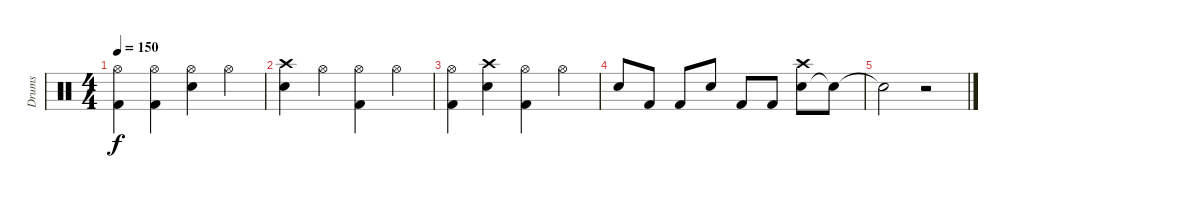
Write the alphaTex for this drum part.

\track ("Drums" "Drums") {instrument percussion}
\staff {score}
\articulation defaults
\ts (4 4)
\tempo 150
\clef neutral
\ks c
("Hi-Hat (open)" "Kick (hit) 2").4{dy f} ("Hi-Hat (open)" "Kick (hit) 2").4 ("Hi-Hat (open)" "Electric Snare (hit)").4 "Hi-Hat (open)".4 |
("Crash high (hit)" "Electric Snare (hit)").4 "Hi-Hat (open)".4 ("Hi-Hat (open)" "Kick (hit) 2").4 "Hi-Hat (open)".4 |
("Hi-Hat (open)" "Kick (hit) 2").4 ("Crash high (hit)" "Electric Snare (hit)").4 ("Hi-Hat (open)" "Kick (hit) 2").4 "Hi-Hat (open)".4 |
"Electric Snare (hit)".8 "Kick (hit) 2".8 "Kick (hit) 2".8 "Electric Snare (hit)".8 "Kick (hit) 2".8 "Kick (hit) 2".8 ("Electric Snare (hit)" "Crash high (hit)").8 "Snare (hit)"{t}.8 |
"Snare (hit)"{t}.2 r.2
